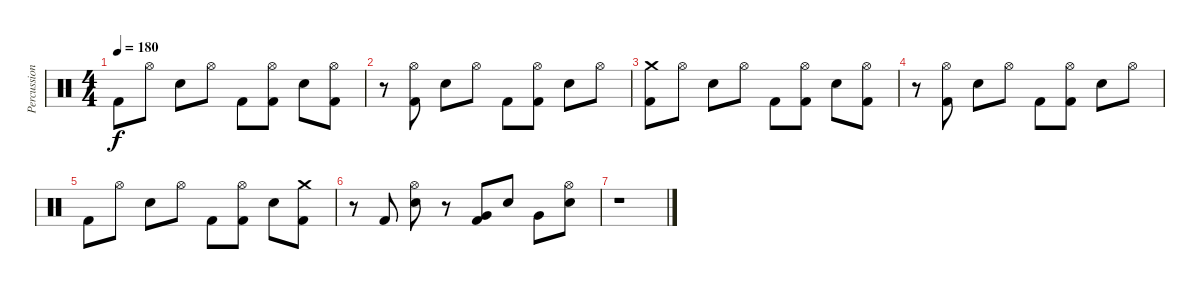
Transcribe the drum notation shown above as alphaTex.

\track ("Percussion" "Percussion") {instrument percussion}
\staff {score}
\articulation defaults
\ts (4 4)
\tempo 180
\clef neutral
\ks c "Kick (hit) 2".8{dy f} "Hi-Hat (open)".8 "Snare (hit) 2".8 "Hi-Hat (open)".8 "Kick (hit) 2".8
("Hi-Hat (open)" "Kick (hit) 2").8 "Snare (hit) 2".8 ("Hi-Hat (open)" "Kick (hit) 2").8 |
r.8 ("Hi-Hat (open)" "Kick (hit) 2").8 "Snare (hit) 2".8 "Hi-Hat (open)".8 "Kick (hit) 2".8 ("Hi-Hat (open)" "Kick (hit) 2").8 "Snare (hit) 2".8 "Hi-Hat (open)".8 |
("Crash medium (hit)" "Kick (hit) 2").8 "Hi-Hat (open)".8 "Snare (hit) 2".8 "Hi-Hat (open)".8 "Kick (hit) 2".8 ("Hi-Hat (open)" "Kick (hit) 2").8 "Snare (hit) 2".8 ("Hi-Hat (open)" "Kick (hit) 2").8 |
r.8 ("Hi-Hat (open)" "Kick (hit) 2").8 "Snare (hit) 2".8 "Hi-Hat (open)".8 "Kick (hit) 2".8 ("Hi-Hat (open)" "Kick (hit) 2").8 "Snare (hit) 2".8 "Hi-Hat (open)".8 |
"Kick (hit) 2".8 "Hi-Hat (open)".8 "Snare (hit) 2".8 "Hi-Hat (open)".8 "Kick (hit) 2".8 ("Hi-Hat (open)" "Kick (hit) 2").8 "Snare (hit) 2".8 ("Crash medium (hit)" "Kick (hit) 2").8 |
r.8 "Kick (hit) 2".8 ("Hi-Hat (open)" "Snare (hit) 2").8 r.8 ("Very Low Tom (hit)" "Kick (hit) 2").8 "Snare (hit) 2".8 "Very Low Tom (hit)".8 ("Hi-Hat (open)" "Snare (hit) 2").8 |
r.1
